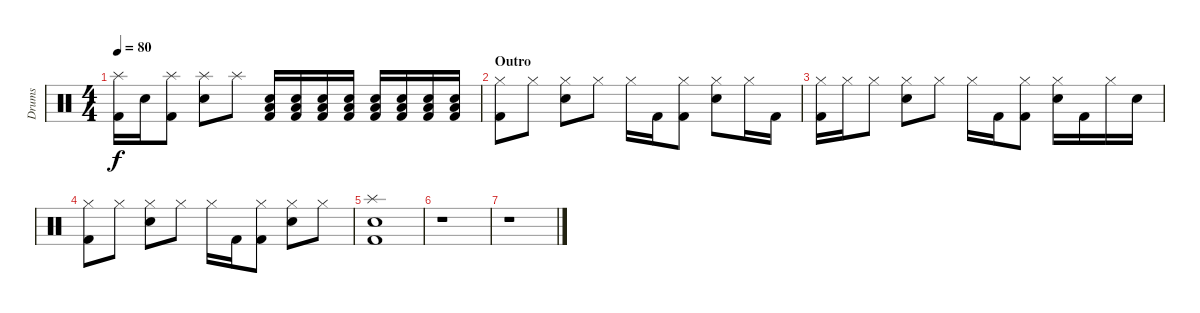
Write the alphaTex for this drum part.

\track ("Drums" "Drums") {instrument percussion}
\staff {score}
\articulation defaults
\ts (4 4)
\tempo 80
\clef neutral
\ks c
("Splash (hit)" "Kick (hit) 2").16{dy f} "Snare (hit) 2".16 ("Splash (hit)" "Kick (hit) 2").8 ("Splash (hit)" "Snare (hit) 2").8 "Splash (hit)".8 ("Snare (hit) 2" "Kick (hit) 2" "Low Tom (hit)").16 ("Snare (hit) 2" "Kick (hit) 2" "Low Tom (hit)").16 ("Snare (hit) 2" "Kick (hit) 2" "Low Tom (hit)").16 ("Snare (hit) 2" "Kick (hit) 2" "Low Tom (hit)").16 ("Snare (hit) 2" "Kick (hit) 2" "Low Tom (hit)").16 ("Snare (hit) 2" "Kick (hit) 2" "Low Tom (hit)").16 ("Snare (hit) 2" "Kick (hit) 2" "Low Tom (hit)").16 ("Snare (hit) 2" "Kick (hit) 2" "Low Tom (hit)").16 |
\section ("" "Outro")
("Kick (hit) 2" "Hi-Hat (closed)").8 "Hi-Hat (closed)".8 ("Snare (hit) 2" "Hi-Hat (closed)").8 "Hi-Hat (closed)".8 "Hi-Hat (closed)".16 "Kick (hit) 2".16 ("Hi-Hat (closed)" "Kick (hit) 2").8 ("Hi-Hat (closed)" "Snare (hit) 2").8 "Hi-Hat (closed)".16 "Kick (hit) 2".16 |
("Kick (hit) 2" "Hi-Hat (closed)").16 "Hi-Hat (closed)".16 "Hi-Hat (closed)".8 ("Snare (hit) 2" "Hi-Hat (closed)").8 "Hi-Hat (closed)".8 "Hi-Hat (closed)".16 "Kick (hit) 2".16 ("Hi-Hat (closed)" "Kick (hit) 2").8 ("Hi-Hat (closed)" "Snare (hit) 2").16 "Kick (hit) 2".16 "Hi-Hat (closed)".16 "Snare (hit) 2".16 |
("Kick (hit) 2" "Hi-Hat (closed)").8 "Hi-Hat (closed)".8 ("Snare (hit) 2" "Hi-Hat (closed)").8 "Hi-Hat (closed)".8 "Hi-Hat (closed)".16 "Kick (hit) 2".16 ("Hi-Hat (closed)" "Kick (hit) 2").8 ("Hi-Hat (closed)" "Snare (hit) 2").8 "Hi-Hat (closed)".8 |
("Splash (hit)" "Kick (hit) 2" "Snare (hit) 2").1 |
r.1 |
r.1
